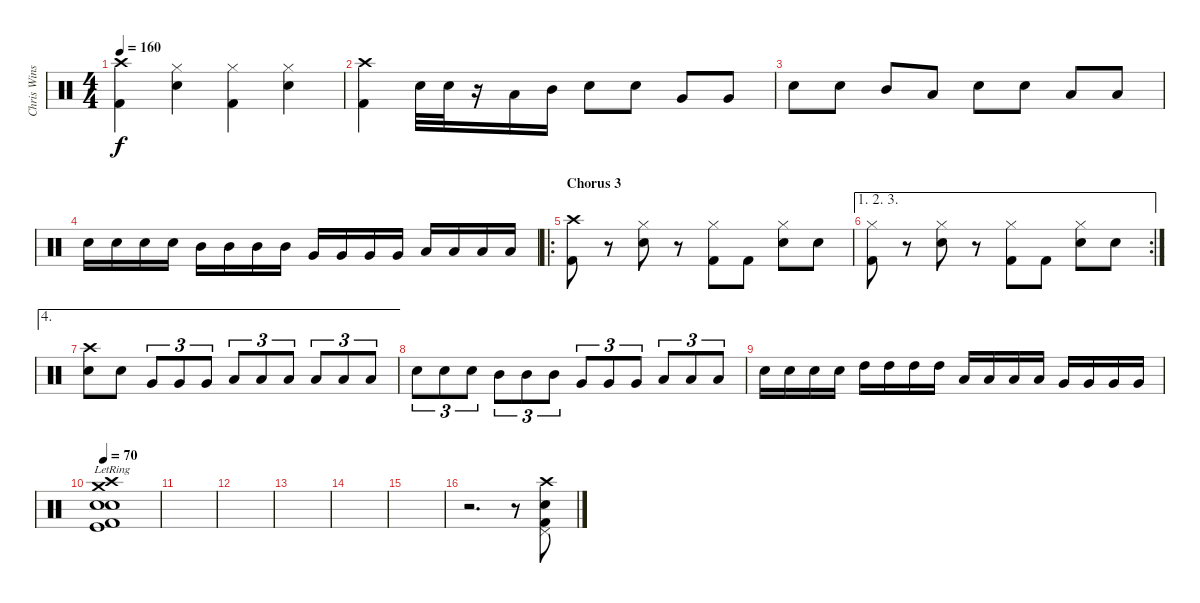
\track ("Chris Winship (Drums)" "Chris Wins") {instrument percussion}
\staff {score}
\articulation defaults
\ts (4 4)
\tempo 160
\clef neutral
\ks c
("Crash high (hit)" "Kick (hit) 2").4{dy f} ("Hi-Hat (closed)" "Snare (hit) 2").4 ("Hi-Hat (closed)" "Kick (hit) 2").4 ("Hi-Hat (closed)" "Snare (hit) 2").4 |
("Crash high (hit)" "Kick (hit) 2").4 "Electric Snare (hit)".32 "Snare (hit) 2".32 r.16 "Low Tom (hit)".16 "Mid Tom (hit)".16 "Snare (hit) 2".8 "Snare (hit) 2".8 "Very Low Tom (hit)".8 "Very Low Tom (hit)".8 |
"Electric Snare (hit)".8 "Electric Snare (hit)".8 "Mid Tom (hit)".8 "Low Tom (hit)".8 "Snare (hit) 2".8 "Snare (hit) 2".8 "Low Tom (hit)".8 "Low Floor Tom (hit)".8 |
"Snare (hit) 2".16 "Snare (hit) 2".16 "Snare (hit) 2".16 "Snare (hit) 2".16 "Mid Tom (hit)".16 "Mid Tom (hit)".16 "Mid Tom (hit)".16 "Mid Tom (hit)".16 "Very Low Tom (hit)".16 "Very Low Tom (hit)".16 "Very Low Tom (hit)".16 "Very Low Tom (hit)".16 "Low Floor Tom (hit)".16 "Low Floor Tom (hit)".16 "Low Floor Tom (hit)".16 "Low Floor Tom (hit)".16 |
\ro
\section ("" "Chorus 3")
("Crash high (hit)" "Kick (hit) 2").8 r.8 ("Hi-Hat (closed)" "Snare (hit) 2").8 r.8 ("Hi-Hat (closed)" "Kick (hit) 2").8 "Kick (hit) 2".8 ("Hi-Hat (closed)" "Snare (hit) 2").8 "Snare (hit) 2".8 |
\ae (1 2 3)
\rc 2
("Hi-Hat (closed)" "Kick (hit) 2").8 r.8 ("Hi-Hat (closed)" "Snare (hit) 2").8 r.8 ("Hi-Hat (closed)" "Kick (hit) 2").8 "Kick (hit) 2".8 ("Hi-Hat (closed)" "Snare (hit) 2").8 "Snare (hit) 2".8 |
\ae 4
("Crash high (hit)" "Snare (hit) 2").8 "Snare (hit) 2".8 "Very Low Tom (hit)".8{tu (3 2)} "Very Low Tom (hit)".8{tu (3 2)} "Very Low Tom (hit)".8{tu (3 2)} "Low Tom (hit)".8{tu (3 2)} "Low Tom (hit)".8{tu (3 2)} "Low Tom (hit)".8{tu (3 2)} "Low Floor Tom (hit)".8{tu (3 2)} "Low Floor Tom (hit)".8{tu (3 2)} "Low Floor Tom (hit)".8{tu (3 2)} |
"Electric Snare (hit)".8{tu (3 2)} "Electric Snare (hit)".8{tu (3 2)} "Electric Snare (hit)".8{tu (3 2)} "Mid Tom (hit)".8{tu (3 2)} "Mid Tom (hit)".8{tu (3 2)} "Mid Tom (hit)".8{tu (3 2)} "Very Low Tom (hit)".8{tu (3 2)} "Very Low Tom (hit)".8{tu (3 2)} "Very Low Tom (hit)".8{tu (3 2)} "Low Tom (hit)".8{tu (3 2)} "Low Tom (hit)".8{tu (3 2)} "Low Tom (hit)".8{tu (3 2)} |
"Snare (hit) 2".16 "Snare (hit) 2".16 "Snare (hit) 2".16 "Snare (hit) 2".16 "High Tom (hit)".16 "High Tom (hit)".16 "High Tom (hit)".16 "High Tom (hit)".16 "Low Tom (hit)".16 "Low Tom (hit)".16 "Low Tom (hit)".16 "Low Tom (hit)".16 "Very Low Tom (hit)".16 "Very Low Tom (hit)".16 "Very Low Tom (hit)".16 "Very Low Tom (hit)".16 |
\tempo 70
("Crash high (hit)"{lr} "Crash medium (hit)" "Snare (hit) 2"{lr} "Electric Snare (hit)"{lr} "Kick (hit)"{lr} "Kick (hit) 2"{lr}).1 |
|
|
|
|
|
r.2{d} r.8 ("Kick (hit) 2" "Crash high (hit)" "Electric Snare (hit)" "Pedal Hi-Hat (hit)").8
